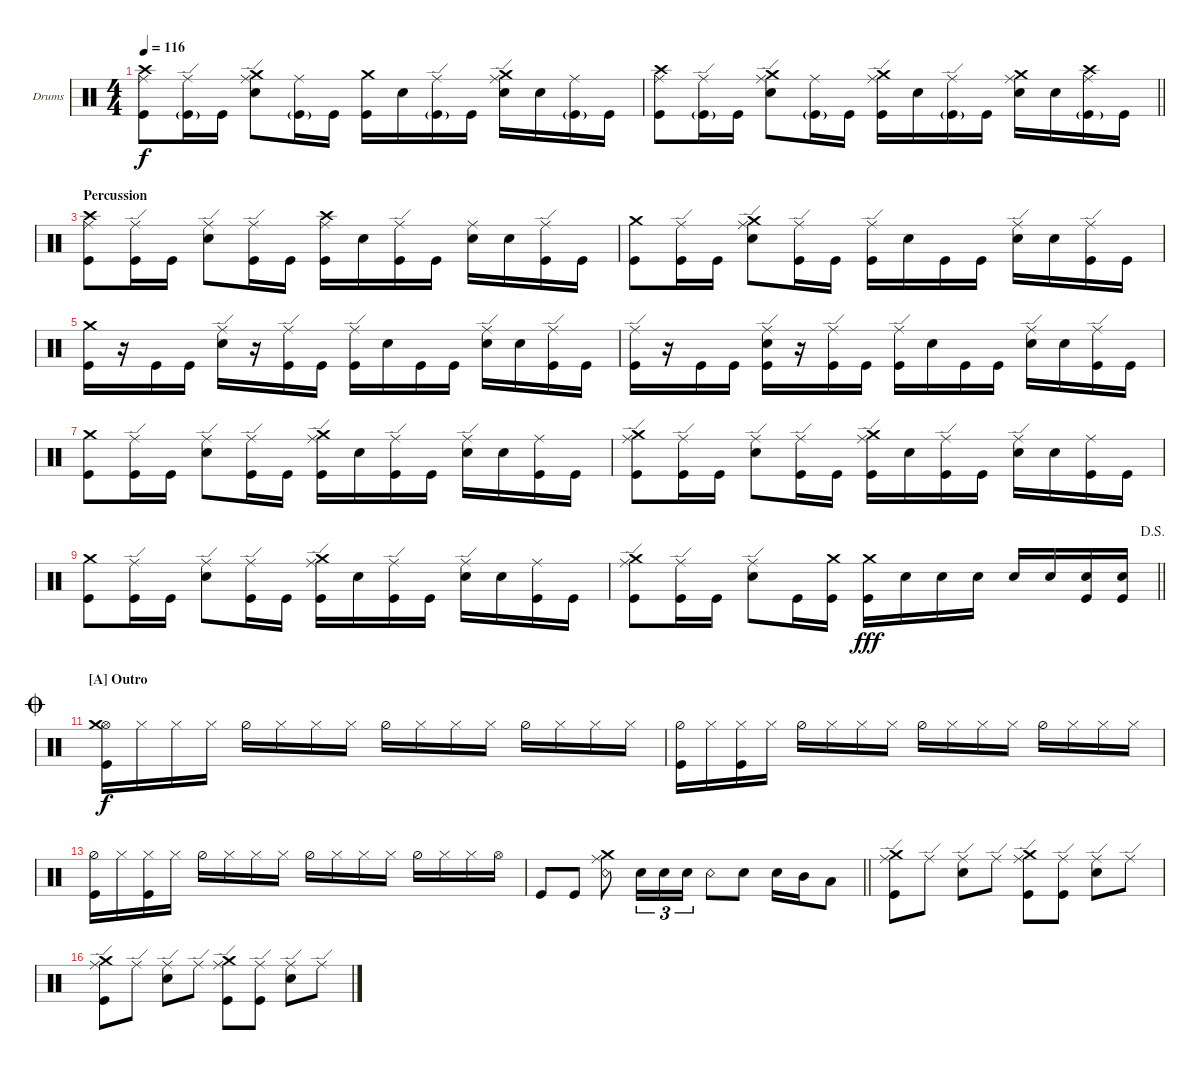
\bracketExtendMode nobrackets
\firstSystemTrackNameOrientation horizontal
\otherSystemsTrackNameOrientation horizontal
\defaultBarNumberDisplay FirstOfSystem
\track ("Drumkit" "Drums") {instrument percussion}
\staff {score}
\articulation defaults
\ts (4 4)
\tempo 116
\clef neutral
\scale
0.5
\ks c
("Kick (hit)" "Crash high (hit)" "Ride (middle)").8{dy f} ("Ride (edge)" "Kick (hit)"{g}).16 "Kick (hit)".16 ("Snare (hit) 2" "Crash medium (hit)" "Ride (edge)").8 ("Ride (middle)" "Kick (hit)"{g}).16 "Kick (hit)".16 ("Crash medium (hit)" "Kick (hit)").16 "Snare (hit) 2".16 ("Ride (edge)" "Kick (hit)"{g}).16 "Kick (hit)".16 ("Crash medium (hit)" "Ride (edge)" "Snare (hit) 2").16 "Snare (hit) 2".16 ("Ride (middle)" "Kick (hit)"{g}).16 "Kick (hit)".16 |
\scale
0.5
\barLineRight lightlight
("Ride (middle)" "Kick (hit)" "Crash high (hit)").8 ("Ride (edge)" "Kick (hit)"{g}).16 "Kick (hit)".16 ("Snare (hit) 2" "Crash medium (hit)" "Ride (edge)").8 ("Ride (middle)" "Kick (hit)"{g}).16 "Kick (hit)".16 ("Crash medium (hit)" "Ride (edge)" "Kick (hit)").16 "Snare (hit) 2".16 ("Ride (edge)" "Kick (hit)"{g}).16 "Kick (hit)".16 ("Crash medium (hit)" "Ride (middle)" "Snare (hit) 2").16 "Snare (hit) 2".16 ("Ride (middle)" "Kick (hit)"{g} "Crash high (hit)").16 "Kick (hit)".16 |
\section ("" "Percussion")
\scale
0.5 ("Kick (hit)" "Ride (middle)" "Crash high (hit)").8 ("Ride (edge)" "Kick (hit)").16 "Kick (hit)".16 ("Ride (edge)" "Snare (hit) 2").8 ("Ride (edge)" "Kick (hit)").16 "Kick (hit)".16 ("Kick (hit)" "Ride (middle)" "Crash high (hit)").16 "Snare (hit) 2".16 ("Ride (edge)" "Kick (hit)").16 "Kick (hit)".16 ("Ride (middle)" "Snare (hit) 2").16 "Snare (hit) 2".16 ("Ride (edge)" "Kick (hit)").16 "Kick (hit)".16 |
\scale
0.5 ("Kick (hit)" "Crash medium (hit)").8 ("Kick (hit)" "Ride (edge)").16 "Kick (hit)".16 ("Snare (hit) 2" "Ride (edge)" "Crash medium (hit)").8 ("Kick (hit)" "Ride (edge)").16 "Kick (hit)".16 ("Ride (edge)" "Kick (hit)").16 "Snare (hit) 2".16 "Kick (hit)".16 "Kick (hit)".16 ("Ride (edge)" "Snare (hit) 2").16 "Snare (hit) 2".16 ("Kick (hit)" "Ride (edge)").16 "Kick (hit)".16 |
\scale
0.5 ("Crash medium (hit)" "Kick (hit)").16 r.16 "Kick (hit)".16 "Kick (hit)".16 ("Ride (edge)" "Snare (hit) 2").16 r.16 ("Kick (hit)" "Ride (edge)").16 "Kick (hit)".16 ("Ride (edge)" "Kick (hit)").16 "Snare (hit) 2".16 "Kick (hit)".16 "Kick (hit)".16 ("Ride (edge)" "Snare (hit) 2").16 "Snare (hit) 2".16 ("Kick (hit)" "Ride (edge)").16 "Kick (hit)".16 |
\scale
0.5 ("Ride (edge)" "Kick (hit)").16 r.16 "Kick (hit)".16 "Kick (hit)".16 ("Ride (edge)" "Snare (hit) 2" "Kick (hit)").16 r.16 ("Kick (hit)" "Ride (edge)").16 "Kick (hit)".16 ("Kick (hit)" "Ride (edge)").16 "Snare (hit) 2".16 "Kick (hit)".16 "Kick (hit)".16 ("Ride (edge)" "Snare (hit) 2").16 "Snare (hit) 2".16 ("Kick (hit)" "Ride (edge)").16 "Kick (hit)".16 |
\scale
0.5 ("Kick (hit)" "Crash medium (hit)").8 ("Ride (edge)" "Kick (hit)").16 "Kick (hit)".16 ("Ride (edge)" "Snare (hit) 2").8 ("Ride (edge)" "Kick (hit)").16 "Kick (hit)".16 ("Ride (edge)" "Kick (hit)" "Crash medium (hit)").16 "Snare (hit) 2".16 ("Ride (edge)" "Kick (hit)").16 "Kick (hit)".16 ("Ride (edge)" "Snare (hit) 2").16 "Snare (hit) 2".16 ("Ride (middle)" "Kick (hit)").16 "Kick (hit)".16 |
\scale
0.5 ("Ride (edge)" "Kick (hit)" "Crash medium (hit)").8 ("Ride (edge)" "Kick (hit)").16 "Kick (hit)".16 ("Ride (edge)" "Snare (hit) 2").8 ("Ride (edge)" "Kick (hit)").16 "Kick (hit)".16 ("Ride (edge)" "Kick (hit)" "Crash medium (hit)").16 "Snare (hit) 2".16 ("Ride (edge)" "Kick (hit)").16 "Kick (hit)".16 ("Ride (edge)" "Snare (hit) 2").16 "Snare (hit) 2".16 ("Ride (middle)" "Kick (hit)").16 "Kick (hit)".16 |
\scale
0.414373 ("Kick (hit)" "Crash medium (hit)").8 ("Ride (edge)" "Kick (hit)").16 "Kick (hit)".16 ("Ride (edge)" "Snare (hit) 2").8 ("Ride (edge)" "Kick (hit)").16 "Kick (hit)".16 ("Ride (edge)" "Kick (hit)" "Crash medium (hit)").16 "Snare (hit) 2".16 ("Ride (edge)" "Kick (hit)").16 "Kick (hit)".16 ("Ride (edge)" "Snare (hit) 2").16 "Snare (hit) 2".16 ("Ride (middle)" "Kick (hit)").16 "Kick (hit)".16 |
\jump dalsegno
\scale
0.585627
\barLineRight lightlight
("Ride (edge)" "Kick (hit)" "Crash medium (hit)").8 ("Ride (edge)" "Kick (hit)").16 "Kick (hit)".16 ("Ride (edge)" "Snare (hit) 2").8 "Kick (hit)".16 ("Kick (hit)" "Crash medium (hit)").16 ("Crash medium (hit)" "Kick (hit)").16{dy fff} "Snare (hit) 2".16 "Snare (hit) 2".16 "Snare (hit) 2".16 "Snare (hit) 2".16 "Snare (hit) 2".16 ("Snare (hit) 2" "Kick (hit)").16 ("Snare (hit) 2" "Kick (hit)").16 |
\section ("A" "Outro")
\jump coda
\scale
0.512275 ("Hi-Hat (open)" "Kick (hit)" "Crash medium (hit)").16{dy f} "Hi-Hat (closed)".16 "Hi-Hat (closed)".16 "Hi-Hat (closed)".16 "Hi-Hat (half)".16 "Hi-Hat (closed)".16 "Hi-Hat (closed)".16 "Hi-Hat (closed)".16 "Hi-Hat (half)".16 "Hi-Hat (closed)".16 "Hi-Hat (closed)".16 "Hi-Hat (closed)".16 "Hi-Hat (half)".16 "Hi-Hat (closed)".16 "Hi-Hat (closed)".16 "Hi-Hat (closed)".16 |
\scale
0.487725 ("Hi-Hat (half)" "Kick (hit)").16 "Hi-Hat (closed)".16 ("Hi-Hat (closed)" "Kick (hit)").16 "Hi-Hat (closed)".16 "Hi-Hat (half)".16 "Hi-Hat (closed)".16 "Hi-Hat (closed)".16 "Hi-Hat (closed)".16 "Hi-Hat (half)".16 "Hi-Hat (closed)".16 "Hi-Hat (closed)".16 "Hi-Hat (closed)".16 "Hi-Hat (half)".16 "Hi-Hat (closed)".16 "Hi-Hat (closed)".16 "Hi-Hat (closed)".16 |
\scale
0.549815 ("Hi-Hat (half)" "Kick (hit)").16 "Hi-Hat (closed)".16 ("Hi-Hat (closed)" "Kick (hit)").16 "Hi-Hat (closed)".16 "Hi-Hat (half)".16 "Hi-Hat (closed)".16 "Hi-Hat (closed)".16 "Hi-Hat (closed)".16 "Hi-Hat (half)".16 "Hi-Hat (closed)".16 "Hi-Hat (closed)".16 "Hi-Hat (closed)".16 "Hi-Hat (half)".16 "Hi-Hat (closed)".16 "Hi-Hat (closed)".16 "Hi-Hat (open)".16 |
\scale
0.450185
\barLineRight lightlight "Kick (hit)".8 "Kick (hit)".8
("Snare (rim shot)" "Crash medium (hit)" "Ride (middle)").8 "Snare (hit) 2".16{tu (3 2)} "Snare (hit) 2".16{tu (3 2)} "Snare (hit) 2".16{tu (3 2)} "Snare (rim shot)".8 "Snare (hit) 2".8 "Snare (hit) 2".16 "Mid Tom (hit)".16 "Low Tom (hit)".8 |
\scale
0.5 ("Kick (hit)" "Ride (edge)" "Crash medium (hit)").8 "Ride (edge)".8 ("Snare (hit) 2" "Ride (edge)").8 "Ride (edge)".8 ("Kick (hit)" "Ride (edge)" "Crash medium (hit)").8 ("Kick (hit)" "Ride (edge)").8 ("Snare (hit) 2" "Ride (edge)").8 "Ride (edge)".8 |
\scale
0.5 ("Kick (hit)" "Ride (edge)" "Crash medium (hit)").8 "Ride (edge)".8 ("Snare (hit) 2" "Ride (edge)").8 "Ride (edge)".8 ("Kick (hit)" "Ride (edge)" "Crash medium (hit)").8 ("Kick (hit)" "Ride (edge)").8 ("Snare (hit) 2" "Ride (edge)").8 "Ride (edge)".8
